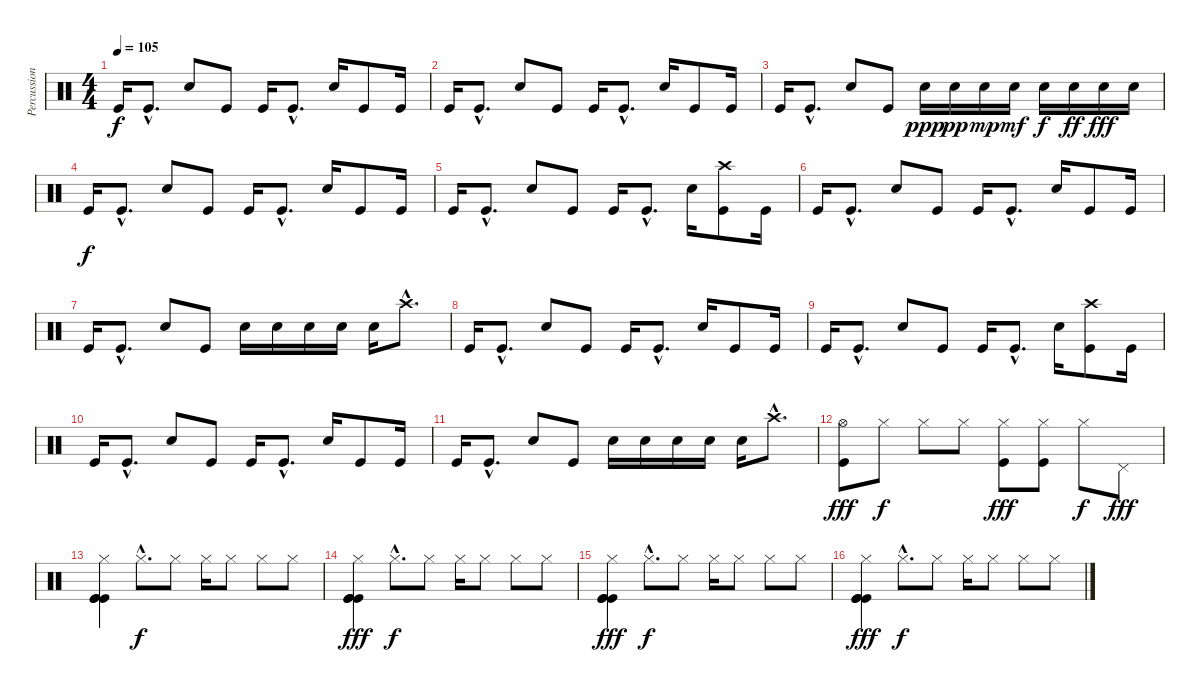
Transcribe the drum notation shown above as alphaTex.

\track ("Percussion" "Percussion") {instrument percussion}
\staff {score}
\articulation defaults
\ts (4 4)
\tempo 105
\clef neutral
\ks c "Kick (hit)".16{dy f} "Kick (hit)"{hac}.8{d} "Electric Snare (hit)".8 "Kick (hit)".8 "Kick (hit)".16 "Kick (hit)"{hac}.8{d} "Electric Snare (hit)".16 "Kick (hit)".8 "Kick (hit)".16
|
"Kick (hit)".16 "Kick (hit)"{hac}.8{d} "Electric Snare (hit)".8 "Kick (hit)".8 "Kick (hit)".16 "Kick (hit)"{hac}.8{d} "Electric Snare (hit)".16 "Kick (hit)".8 "Kick (hit)".16 |
"Kick (hit)".16 "Kick (hit)"{hac}.8{d} "Electric Snare (hit)".8 "Kick (hit)".8 "Electric Snare (hit)".16{dy ppp} "Electric Snare (hit)".16{dy pp} "Electric Snare (hit)".16{dy mp} "Electric Snare (hit)".16{dy mf} "Electric Snare (hit)".16{dy f} "Electric Snare (hit)".16{dy ff} "Electric Snare (hit)".16{dy fff} "Electric Snare (hit)".16 |
"Kick (hit)".16{dy f} "Kick (hit)"{hac}.8{d} "Electric Snare (hit)".8 "Kick (hit)".8 "Kick (hit)".16 "Kick (hit)"{hac}.8{d} "Electric Snare (hit)".16 "Kick (hit)".8 "Kick (hit)".16 |
"Kick (hit)".16 "Kick (hit)"{hac}.8{d} "Electric Snare (hit)".8 "Kick (hit)".8 "Kick (hit)".16 "Kick (hit)"{hac}.8{d} "Electric Snare (hit)".16 ("Crash high (hit)" "Kick (hit)").8 "Kick (hit)".16 |
"Kick (hit)".16 "Kick (hit)"{hac}.8{d} "Electric Snare (hit)".8 "Kick (hit)".8 "Kick (hit)".16 "Kick (hit)"{hac}.8{d} "Electric Snare (hit)".16 "Kick (hit)".8 "Kick (hit)".16 |
"Kick (hit)".16 "Kick (hit)"{hac}.8{d} "Electric Snare (hit)".8 "Kick (hit)".8 "Electric Snare (hit)".16 "Electric Snare (hit)".16 "Electric Snare (hit)".16 "Electric Snare (hit)".16 "Electric Snare (hit)".16 "Crash high (hit)"{hac}.8{d} |
"Kick (hit)".16 "Kick (hit)"{hac}.8{d} "Electric Snare (hit)".8 "Kick (hit)".8 "Kick (hit)".16 "Kick (hit)"{hac}.8{d} "Electric Snare (hit)".16 "Kick (hit)".8 "Kick (hit)".16 |
"Kick (hit)".16 "Kick (hit)"{hac}.8{d} "Electric Snare (hit)".8 "Kick (hit)".8 "Kick (hit)".16 "Kick (hit)"{hac}.8{d} "Electric Snare (hit)".16 ("Crash high (hit)" "Kick (hit)").8 "Kick (hit)".16 |
"Kick (hit)".16 "Kick (hit)"{hac}.8{d} "Electric Snare (hit)".8 "Kick (hit)".8 "Kick (hit)".16 "Kick (hit)"{hac}.8{d} "Electric Snare (hit)".16 "Kick (hit)".8 "Kick (hit)".16 |
"Kick (hit)".16 "Kick (hit)"{hac}.8{d} "Electric Snare (hit)".8 "Kick (hit)".8 "Electric Snare (hit)".16 "Electric Snare (hit)".16 "Electric Snare (hit)".16 "Electric Snare (hit)".16 "Electric Snare (hit)".16 "Crash high (hit)"{hac}.8{d} |
("Hi-Hat (open)" "Kick (hit)").8{dy fff} "Hi-Hat (closed)".8{dy f} "Hi-Hat (closed)".8 "Hi-Hat (closed)".8 ("Hi-Hat (closed)" "Kick (hit)").8{dy fff} ("Hi-Hat (closed)" "Kick (hit)").8 "Hi-Hat (closed)".8{dy f} "Pedal Hi-Hat (hit)".8{dy fff} |
("Hi-Hat (closed)" "Kick (hit)" "Kick (hit)" "Kick (hit)").4 "Hi-Hat (closed)"{hac}.8{d dy f} "Hi-Hat (closed)".8 "Hi-Hat (closed)".16 "Hi-Hat (closed)".8 "Hi-Hat (closed)".8 "Hi-Hat (closed)".8 |
("Hi-Hat (closed)" "Kick (hit)" "Kick (hit)" "Kick (hit)").4{dy fff} "Hi-Hat (closed)"{hac}.8{d dy f} "Hi-Hat (closed)".8 "Hi-Hat (closed)".16 "Hi-Hat (closed)".8 "Hi-Hat (closed)".8 "Hi-Hat (closed)".8 |
("Hi-Hat (closed)" "Kick (hit)" "Kick (hit)" "Kick (hit)").4{dy fff} "Hi-Hat (closed)"{hac}.8{d dy f} "Hi-Hat (closed)".8 "Hi-Hat (closed)".16 "Hi-Hat (closed)".8 "Hi-Hat (closed)".8 "Hi-Hat (closed)".8 |
("Hi-Hat (closed)" "Kick (hit)" "Kick (hit)" "Kick (hit)").4{dy fff} "Hi-Hat (closed)"{hac}.8{d dy f} "Hi-Hat (closed)".8 "Hi-Hat (closed)".16 "Hi-Hat (closed)".8 "Hi-Hat (closed)".8 "Hi-Hat (closed)".8
